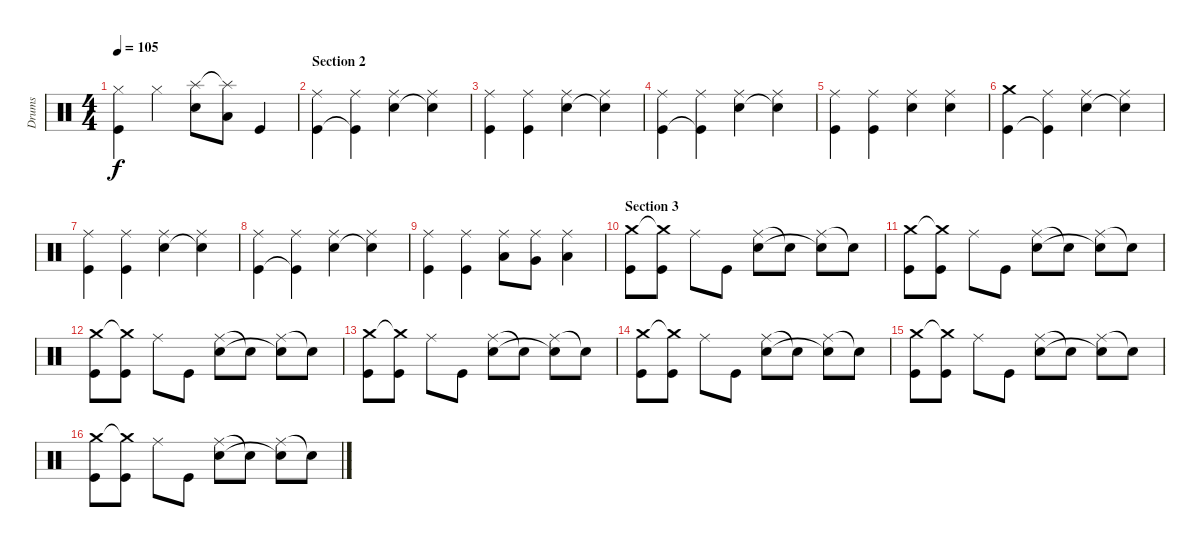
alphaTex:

\track ("Drums" "Drums") {instrument percussion}
\staff {score}
\articulation defaults
\ts (4 4)
\tempo 105
\clef neutral
\ks c
("Hi-Hat (closed)" "Kick (hit)").4{dy f} "Hi-Hat (closed)".4 ("Splash (hit)" "Electric Snare (hit)").8 ("Splash (hit)"{t} "Low Tom (hit)").8 "Kick (hit)".4 |
\section ("" "Section 2")
("Ride (middle)" "Kick (hit)").4 ("Ride (middle)" "Kick (hit)"{t}).4 ("Ride (middle)" "Snare (hit) 2").4 ("Ride (middle)" "Snare (hit) 2"{t}).4 |
("Ride (middle)" "Kick (hit)").4 ("Ride (middle)" "Kick (hit)").4 ("Ride (middle)" "Snare (hit) 2").4 ("Ride (middle)" "Snare (hit) 2"{t}).4 |
("Ride (middle)" "Kick (hit)").4 ("Ride (middle)" "Kick (hit)"{t}).4 ("Ride (middle)" "Snare (hit) 2").4 ("Ride (middle)" "Snare (hit) 2"{t}).4 |
("Ride (middle)" "Kick (hit)").4 ("Ride (middle)" "Kick (hit)").4 ("Ride (middle)" "Snare (hit) 2").4 ("Ride (middle)" "Snare (hit) 2").4 |
("Crash medium (hit)" "Kick (hit)").4 ("Ride (middle)" "Kick (hit)"{t}).4 ("Ride (middle)" "Snare (hit) 2").4 ("Ride (middle)" "Snare (hit) 2"{t}).4 |
("Ride (middle)" "Kick (hit)").4 ("Ride (middle)" "Kick (hit)").4 ("Ride (middle)" "Snare (hit) 2").4 ("Ride (middle)" "Snare (hit) 2"{t}).4 |
("Ride (middle)" "Kick (hit)").4 ("Ride (middle)" "Kick (hit)"{t}).4 ("Ride (middle)" "Snare (hit) 2").4 ("Ride (middle)" "Snare (hit) 2"{t}).4 |
("Ride (middle)" "Kick (hit)").4 ("Ride (middle)" "Kick (hit)").4 ("Ride (middle)" "Low Tom (hit)").8 ("Ride (middle)" "Very Low Tom (hit)").8 ("Ride (middle)" "Low Floor Tom (hit)").4 |
\section ("" "Section 3")
("Crash medium (hit)" "Kick (hit)").8 ("Crash medium (hit)"{t} "Kick (hit)").8 "Ride (middle)".8 "Kick (hit)".8 ("Ride (middle)" "Snare (hit) 2").8 "Snare (hit) 2"{t}.8 ("Ride (middle)" "Snare (hit) 2"{t}).8 "Snare (hit) 2"{t}.8 |
("Crash medium (hit)" "Kick (hit)").8 ("Crash medium (hit)"{t} "Kick (hit)").8 "Ride (middle)".8 "Kick (hit)".8 ("Ride (middle)" "Snare (hit) 2").8 "Snare (hit) 2"{t}.8 ("Ride (middle)" "Snare (hit) 2"{t}).8 "Snare (hit) 2"{t}.8 |
("Crash medium (hit)" "Kick (hit)").8 ("Crash medium (hit)"{t} "Kick (hit)").8 "Ride (middle)".8 "Kick (hit)".8 ("Ride (middle)" "Snare (hit) 2").8 "Snare (hit) 2"{t}.8 ("Ride (middle)" "Snare (hit) 2"{t}).8 "Snare (hit) 2"{t}.8 |
("Crash medium (hit)" "Kick (hit)").8 ("Crash medium (hit)"{t} "Kick (hit)").8 "Ride (middle)".8 "Kick (hit)".8 ("Ride (middle)" "Snare (hit) 2").8 "Snare (hit) 2"{t}.8 ("Ride (middle)" "Snare (hit) 2"{t}).8 "Snare (hit) 2"{t}.8 |
("Crash medium (hit)" "Kick (hit)").8 ("Crash medium (hit)"{t} "Kick (hit)").8 "Ride (middle)".8 "Kick (hit)".8 ("Ride (middle)" "Snare (hit) 2").8 "Snare (hit) 2"{t}.8 ("Ride (middle)" "Snare (hit) 2"{t}).8 "Snare (hit) 2"{t}.8 |
("Crash medium (hit)" "Kick (hit)").8 ("Crash medium (hit)"{t} "Kick (hit)").8 "Ride (middle)".8 "Kick (hit)".8 ("Ride (middle)" "Snare (hit) 2").8 "Snare (hit) 2"{t}.8 ("Ride (middle)" "Snare (hit) 2"{t}).8 "Snare (hit) 2"{t}.8 |
("Crash medium (hit)" "Kick (hit)").8 ("Crash medium (hit)"{t} "Kick (hit)").8 "Ride (middle)".8 "Kick (hit)".8 ("Ride (middle)" "Snare (hit) 2").8 "Snare (hit) 2"{t}.8 ("Ride (middle)" "Snare (hit) 2"{t}).8 "Snare (hit) 2"{t}.8
